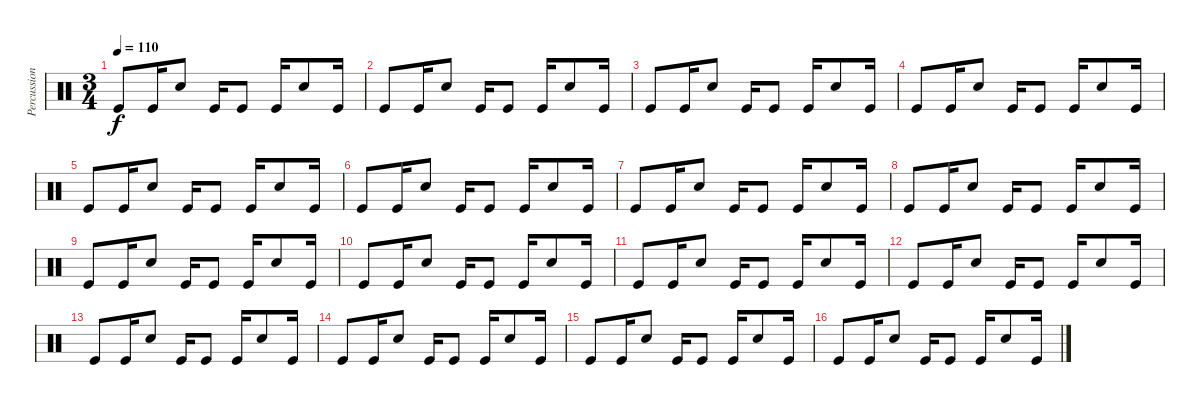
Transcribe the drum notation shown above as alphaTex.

\track ("Percussion" "Percussion") {instrument percussion}
\staff {score}
\articulation defaults
\ts (3 4)
\tempo 110
\clef neutral
\ks c "Kick (hit)".8{dy f} "Kick (hit)".16 "Snare (hit) 2".8 "Kick (hit)".16 "Kick (hit)".8 "Kick (hit)".16 "Snare (hit) 2".8 "Kick (hit)".16
|
"Kick (hit)".8 "Kick (hit)".16 "Snare (hit) 2".8 "Kick (hit)".16 "Kick (hit)".8 "Kick (hit)".16 "Snare (hit) 2".8 "Kick (hit)".16 |
"Kick (hit)".8 "Kick (hit)".16 "Snare (hit) 2".8 "Kick (hit)".16 "Kick (hit)".8 "Kick (hit)".16 "Snare (hit) 2".8 "Kick (hit)".16 |
"Kick (hit)".8 "Kick (hit)".16 "Snare (hit) 2".8 "Kick (hit)".16 "Kick (hit)".8 "Kick (hit)".16 "Snare (hit) 2".8 "Kick (hit)".16 |
"Kick (hit)".8 "Kick (hit)".16 "Snare (hit) 2".8 "Kick (hit)".16 "Kick (hit)".8 "Kick (hit)".16 "Snare (hit) 2".8 "Kick (hit)".16 |
"Kick (hit)".8 "Kick (hit)".16 "Snare (hit) 2".8 "Kick (hit)".16 "Kick (hit)".8 "Kick (hit)".16 "Snare (hit) 2".8 "Kick (hit)".16 |
"Kick (hit)".8 "Kick (hit)".16 "Snare (hit) 2".8 "Kick (hit)".16 "Kick (hit)".8 "Kick (hit)".16 "Snare (hit) 2".8 "Kick (hit)".16 |
"Kick (hit)".8 "Kick (hit)".16 "Snare (hit) 2".8 "Kick (hit)".16 "Kick (hit)".8 "Kick (hit)".16 "Snare (hit) 2".8 "Kick (hit)".16 |
"Kick (hit)".8 "Kick (hit)".16 "Snare (hit) 2".8 "Kick (hit)".16 "Kick (hit)".8 "Kick (hit)".16 "Snare (hit) 2".8 "Kick (hit)".16 |
"Kick (hit)".8 "Kick (hit)".16 "Snare (hit) 2".8 "Kick (hit)".16 "Kick (hit)".8 "Kick (hit)".16 "Snare (hit) 2".8 "Kick (hit)".16 |
"Kick (hit)".8 "Kick (hit)".16 "Snare (hit) 2".8 "Kick (hit)".16 "Kick (hit)".8 "Kick (hit)".16 "Snare (hit) 2".8 "Kick (hit)".16 |
"Kick (hit)".8 "Kick (hit)".16 "Snare (hit) 2".8 "Kick (hit)".16 "Kick (hit)".8 "Kick (hit)".16 "Snare (hit) 2".8 "Kick (hit)".16 |
"Kick (hit)".8 "Kick (hit)".16 "Snare (hit) 2".8 "Kick (hit)".16 "Kick (hit)".8 "Kick (hit)".16 "Snare (hit) 2".8 "Kick (hit)".16 |
"Kick (hit)".8 "Kick (hit)".16 "Snare (hit) 2".8 "Kick (hit)".16 "Kick (hit)".8 "Kick (hit)".16 "Snare (hit) 2".8 "Kick (hit)".16 |
"Kick (hit)".8 "Kick (hit)".16 "Snare (hit) 2".8 "Kick (hit)".16 "Kick (hit)".8 "Kick (hit)".16 "Snare (hit) 2".8 "Kick (hit)".16 |
"Kick (hit)".8 "Kick (hit)".16 "Snare (hit) 2".8 "Kick (hit)".16 "Kick (hit)".8 "Kick (hit)".16 "Snare (hit) 2".8 "Kick (hit)".16
